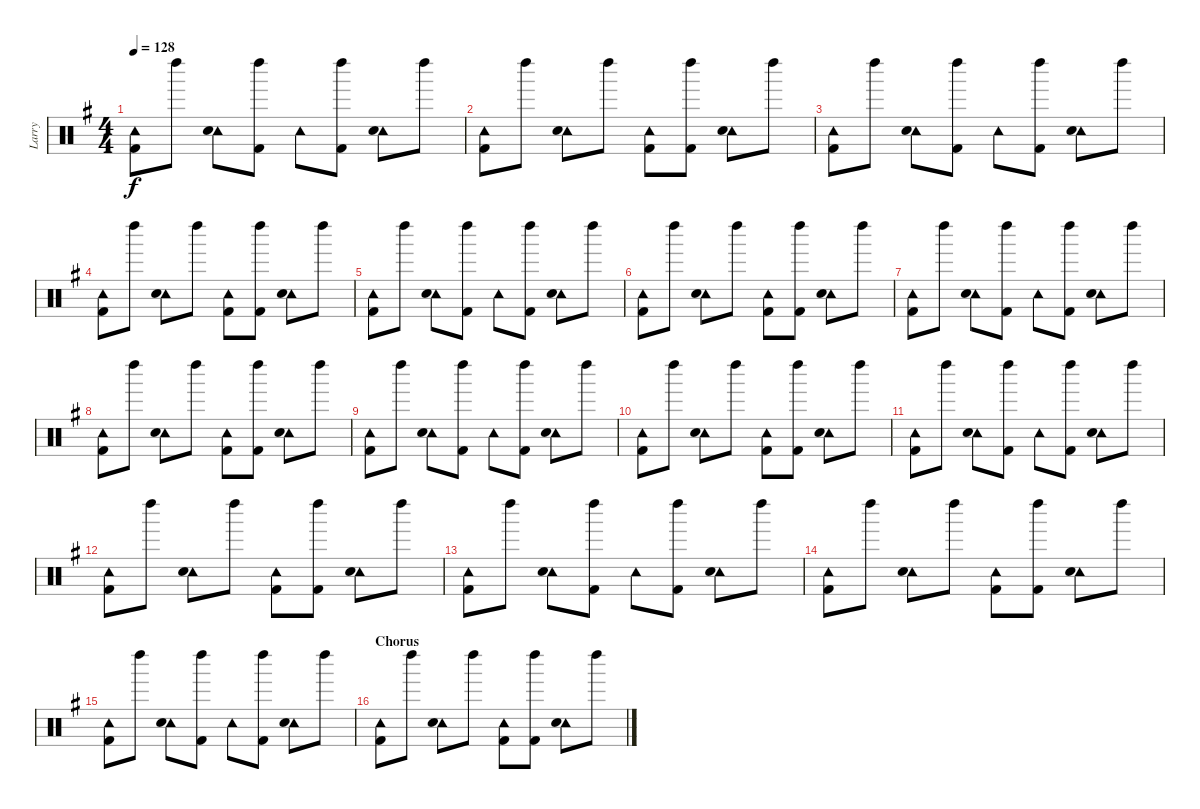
\track ("Larry" "Larry") {instrument percussion}
\staff {score}
\articulation defaults
\ts (4 4)
\tempo 128
\clef neutral
\ks g
("Tambourine (hit)" "Kick (hit) 2").8{dy f} "Left Maraca (hit)".8 ("Tambourine (hit)" "Snare (hit) 2").8 ("Left Maraca (hit)" "Kick (hit) 2").8 "Tambourine (hit)".8 ("Left Maraca (hit)" "Kick (hit) 2").8 ("Tambourine (hit)" "Snare (hit) 2").8 "Left Maraca (hit)".8 |
("Tambourine (hit)" "Kick (hit) 2").8 "Left Maraca (hit)".8 ("Tambourine (hit)" "Snare (hit) 2").8 "Left Maraca (hit)".8 ("Tambourine (hit)" "Kick (hit) 2").8 ("Left Maraca (hit)" "Kick (hit) 2").8 ("Tambourine (hit)" "Snare (hit) 2").8 "Left Maraca (hit)".8 |
("Tambourine (hit)" "Kick (hit) 2").8 "Left Maraca (hit)".8 ("Tambourine (hit)" "Snare (hit) 2").8 ("Left Maraca (hit)" "Kick (hit) 2").8 "Tambourine (hit)".8 ("Left Maraca (hit)" "Kick (hit) 2").8 ("Tambourine (hit)" "Snare (hit) 2").8 "Left Maraca (hit)".8 |
("Tambourine (hit)" "Kick (hit) 2").8 "Left Maraca (hit)".8 ("Tambourine (hit)" "Snare (hit) 2").8 "Left Maraca (hit)".8 ("Tambourine (hit)" "Kick (hit) 2").8 ("Left Maraca (hit)" "Kick (hit) 2").8 ("Tambourine (hit)" "Snare (hit) 2").8 "Left Maraca (hit)".8 |
("Tambourine (hit)" "Kick (hit) 2").8 "Left Maraca (hit)".8 ("Tambourine (hit)" "Snare (hit) 2").8 ("Left Maraca (hit)" "Kick (hit) 2").8 "Tambourine (hit)".8 ("Left Maraca (hit)" "Kick (hit) 2").8 ("Tambourine (hit)" "Snare (hit) 2").8 "Left Maraca (hit)".8 |
("Tambourine (hit)" "Kick (hit) 2").8 "Left Maraca (hit)".8 ("Tambourine (hit)" "Snare (hit) 2").8 "Left Maraca (hit)".8 ("Tambourine (hit)" "Kick (hit) 2").8 ("Left Maraca (hit)" "Kick (hit) 2").8 ("Tambourine (hit)" "Snare (hit) 2").8 "Left Maraca (hit)".8 |
("Tambourine (hit)" "Kick (hit) 2").8 "Left Maraca (hit)".8 ("Tambourine (hit)" "Snare (hit) 2").8 ("Left Maraca (hit)" "Kick (hit) 2").8 "Tambourine (hit)".8 ("Left Maraca (hit)" "Kick (hit) 2").8 ("Tambourine (hit)" "Snare (hit) 2").8 "Left Maraca (hit)".8 |
("Tambourine (hit)" "Kick (hit) 2").8 "Left Maraca (hit)".8 ("Tambourine (hit)" "Snare (hit) 2").8 "Left Maraca (hit)".8 ("Tambourine (hit)" "Kick (hit) 2").8 ("Left Maraca (hit)" "Kick (hit) 2").8 ("Tambourine (hit)" "Snare (hit) 2").8 "Left Maraca (hit)".8 |
("Tambourine (hit)" "Kick (hit) 2").8 "Left Maraca (hit)".8 ("Tambourine (hit)" "Snare (hit) 2").8 ("Left Maraca (hit)" "Kick (hit) 2").8 "Tambourine (hit)".8 ("Left Maraca (hit)" "Kick (hit) 2").8 ("Tambourine (hit)" "Snare (hit) 2").8 "Left Maraca (hit)".8 |
("Tambourine (hit)" "Kick (hit) 2").8 "Left Maraca (hit)".8 ("Tambourine (hit)" "Snare (hit) 2").8 "Left Maraca (hit)".8 ("Tambourine (hit)" "Kick (hit) 2").8 ("Left Maraca (hit)" "Kick (hit) 2").8 ("Tambourine (hit)" "Snare (hit) 2").8 "Left Maraca (hit)".8 |
("Tambourine (hit)" "Kick (hit) 2").8 "Left Maraca (hit)".8 ("Tambourine (hit)" "Snare (hit) 2").8 ("Left Maraca (hit)" "Kick (hit) 2").8 "Tambourine (hit)".8 ("Left Maraca (hit)" "Kick (hit) 2").8 ("Tambourine (hit)" "Snare (hit) 2").8 "Left Maraca (hit)".8 |
("Tambourine (hit)" "Kick (hit) 2").8 "Left Maraca (hit)".8 ("Tambourine (hit)" "Snare (hit) 2").8 "Left Maraca (hit)".8 ("Tambourine (hit)" "Kick (hit) 2").8 ("Left Maraca (hit)" "Kick (hit) 2").8 ("Tambourine (hit)" "Snare (hit) 2").8 "Left Maraca (hit)".8 |
("Tambourine (hit)" "Kick (hit) 2").8 "Left Maraca (hit)".8 ("Tambourine (hit)" "Snare (hit) 2").8 ("Left Maraca (hit)" "Kick (hit) 2").8 "Tambourine (hit)".8 ("Left Maraca (hit)" "Kick (hit) 2").8 ("Tambourine (hit)" "Snare (hit) 2").8 "Left Maraca (hit)".8 |
("Tambourine (hit)" "Kick (hit) 2").8 "Left Maraca (hit)".8 ("Tambourine (hit)" "Snare (hit) 2").8 "Left Maraca (hit)".8 ("Tambourine (hit)" "Kick (hit) 2").8 ("Left Maraca (hit)" "Kick (hit) 2").8 ("Tambourine (hit)" "Snare (hit) 2").8 "Left Maraca (hit)".8 |
("Tambourine (hit)" "Kick (hit) 2").8 "Left Maraca (hit)".8 ("Tambourine (hit)" "Snare (hit) 2").8 ("Left Maraca (hit)" "Kick (hit) 2").8 "Tambourine (hit)".8 ("Left Maraca (hit)" "Kick (hit) 2").8 ("Tambourine (hit)" "Snare (hit) 2").8 "Left Maraca (hit)".8 |
\section ("" "Chorus")
("Tambourine (hit)" "Kick (hit) 2").8 "Left Maraca (hit)".8 ("Tambourine (hit)" "Snare (hit) 2").8 "Left Maraca (hit)".8 ("Tambourine (hit)" "Kick (hit) 2").8 ("Left Maraca (hit)" "Kick (hit) 2").8 ("Tambourine (hit)" "Snare (hit) 2").8 "Left Maraca (hit)".8
